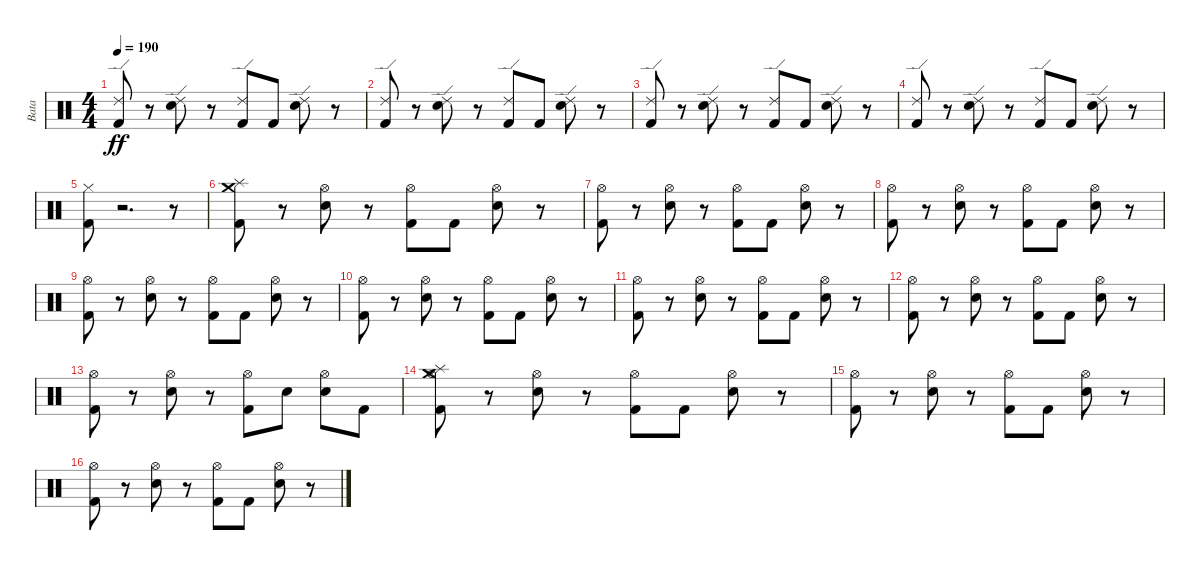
\track ("Bata" "Bata") {instrument percussion}
\staff {score}
\articulation defaults
\ts (4 4)
\tempo 190
\clef neutral
\ks c
("Ride (edge) 2" "Kick (hit) 2").8{dy ff} r.8 ("Ride (edge) 2" "Snare (hit) 2").8 r.8 ("Kick (hit) 2" "Ride (edge) 2").8 "Kick (hit) 2".8 ("Snare (hit) 2" "Ride (edge) 2").8 r.8 |
("Ride (edge) 2" "Kick (hit) 2").8 r.8 ("Ride (edge) 2" "Snare (hit) 2").8 r.8 ("Kick (hit) 2" "Ride (edge) 2").8 "Kick (hit) 2".8 ("Ride (edge) 2" "Snare (hit) 2").8 r.8 |
("Ride (edge) 2" "Kick (hit) 2").8 r.8 ("Snare (hit) 2" "Ride (edge) 2").8 r.8 ("Kick (hit) 2" "Ride (edge) 2").8 "Kick (hit) 2".8 ("Ride (edge) 2" "Snare (hit) 2").8 r.8 |
("Kick (hit) 2" "Ride (edge) 2").8 r.8 ("Snare (hit) 2" "Ride (edge) 2").8 r.8 ("Ride (edge) 2" "Kick (hit) 2").8 "Kick (hit) 2".8 ("Ride (edge) 2" "Snare (hit) 2").8 r.8 |
("Kick (hit) 2" "Hi-Hat (closed)").8 r.2{d} r.8 |
("Kick (hit) 2" "Splash (hit)" "Crash medium (hit)").8 r.8 ("Snare (hit) 2" "Hi-Hat (open)").8 r.8 ("Hi-Hat (open)" "Kick (hit) 2").8 "Kick (hit) 2".8 ("Hi-Hat (open)" "Snare (hit) 2").8 r.8 |
("Kick (hit) 2" "Hi-Hat (open)").8 r.8 ("Hi-Hat (open)" "Snare (hit) 2").8 r.8 ("Hi-Hat (open)" "Kick (hit) 2").8 "Kick (hit) 2".8 ("Hi-Hat (open)" "Snare (hit) 2").8 r.8 |
("Kick (hit) 2" "Hi-Hat (open)").8 r.8 ("Hi-Hat (open)" "Snare (hit) 2").8 r.8 ("Hi-Hat (open)" "Kick (hit) 2").8 "Kick (hit) 2".8 ("Snare (hit) 2" "Hi-Hat (open)").8 r.8 |
("Hi-Hat (open)" "Kick (hit) 2").8 r.8 ("Hi-Hat (open)" "Snare (hit) 2").8 r.8 ("Kick (hit) 2" "Hi-Hat (open)").8 "Kick (hit) 2".8 ("Snare (hit) 2" "Hi-Hat (open)").8 r.8 |
("Hi-Hat (open)" "Kick (hit) 2").8 r.8 ("Hi-Hat (open)" "Snare (hit) 2").8 r.8 ("Kick (hit) 2" "Hi-Hat (open)").8 "Kick (hit) 2".8 ("Hi-Hat (open)" "Snare (hit) 2").8 r.8 |
("Hi-Hat (open)" "Kick (hit) 2").8 r.8 ("Snare (hit) 2" "Hi-Hat (open)").8 r.8 ("Kick (hit) 2" "Hi-Hat (open)").8 "Kick (hit) 2".8 ("Hi-Hat (open)" "Snare (hit) 2").8 r.8 |
("Hi-Hat (open)" "Kick (hit) 2").8 r.8 ("Snare (hit) 2" "Hi-Hat (open)").8 r.8 ("Hi-Hat (open)" "Kick (hit) 2").8 "Kick (hit) 2".8 ("Hi-Hat (open)" "Snare (hit) 2").8 r.8 |
("Kick (hit) 2" "Hi-Hat (open)").8 r.8 ("Snare (hit) 2" "Hi-Hat (open)").8 r.8 ("Hi-Hat (open)" "Kick (hit) 2").8 "Snare (hit) 2".8 ("Hi-Hat (open)" "Snare (hit) 2").8 "Kick (hit) 2".8 |
("Splash (hit)" "Crash medium (hit)" "Kick (hit) 2" "Hi-Hat (open)").8 r.8 ("Snare (hit) 2" "Hi-Hat (open)").8 r.8 ("Kick (hit) 2" "Hi-Hat (open)").8 "Kick (hit) 2".8 ("Snare (hit) 2" "Hi-Hat (open)").8 r.8 |
("Kick (hit) 2" "Hi-Hat (open)").8 r.8 ("Snare (hit) 2" "Hi-Hat (open)").8 r.8 ("Kick (hit) 2" "Hi-Hat (open)").8 "Kick (hit) 2".8 ("Hi-Hat (open)" "Snare (hit) 2").8 r.8 |
("Kick (hit) 2" "Hi-Hat (open)").8 r.8 ("Snare (hit) 2" "Hi-Hat (open)").8 r.8 ("Kick (hit) 2" "Hi-Hat (open)").8 "Kick (hit) 2".8 ("Snare (hit) 2" "Hi-Hat (open)").8 r.8
